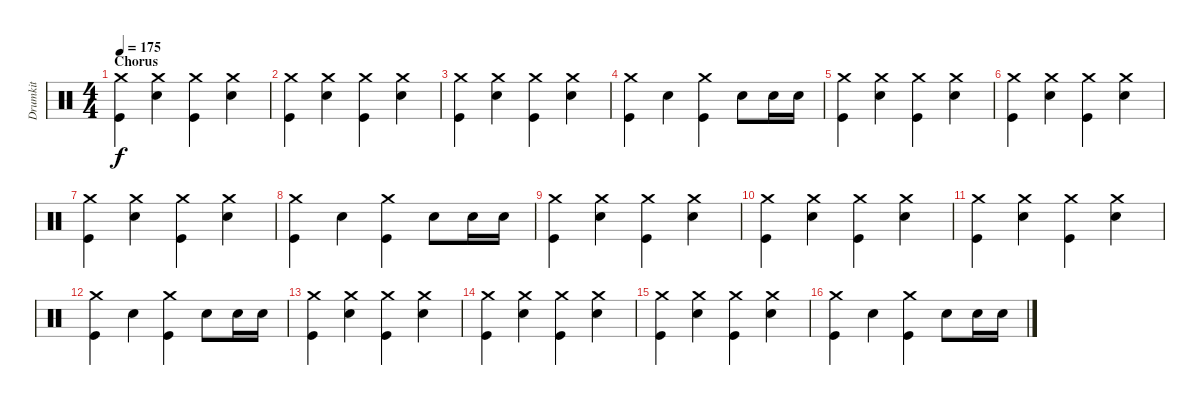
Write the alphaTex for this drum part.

\track ("Drumkit" "Drumkit") {instrument percussion}
\staff {score}
\articulation defaults
\ts (4 4)
\section ("" "Chorus")
\tempo 175
\clef neutral
\ks c
("Kick (hit)" "Crash medium (hit)").4{dy f} ("Snare (hit) 2" "Crash medium (hit)").4 ("Kick (hit)" "Crash medium (hit)").4 ("Snare (hit) 2" "Crash medium (hit)").4 |
("Kick (hit)" "Crash medium (hit)").4 ("Snare (hit) 2" "Crash medium (hit)").4 ("Kick (hit)" "Crash medium (hit)").4 ("Snare (hit) 2" "Crash medium (hit)").4 |
("Kick (hit)" "Crash medium (hit)").4 ("Snare (hit) 2" "Crash medium (hit)").4 ("Kick (hit)" "Crash medium (hit)").4 ("Snare (hit) 2" "Crash medium (hit)").4 |
("Kick (hit)" "Crash medium (hit)").4 "Snare (hit) 2".4 ("Kick (hit)" "Crash medium (hit)").4 "Snare (hit) 2".8 "Snare (hit) 2".16 "Snare (hit) 2".16 |
("Kick (hit)" "Crash medium (hit)").4 ("Snare (hit) 2" "Crash medium (hit)").4 ("Kick (hit)" "Crash medium (hit)").4 ("Snare (hit) 2" "Crash medium (hit)").4 |
("Kick (hit)" "Crash medium (hit)").4 ("Snare (hit) 2" "Crash medium (hit)").4 ("Kick (hit)" "Crash medium (hit)").4 ("Snare (hit) 2" "Crash medium (hit)").4 |
("Kick (hit)" "Crash medium (hit)").4 ("Snare (hit) 2" "Crash medium (hit)").4 ("Kick (hit)" "Crash medium (hit)").4 ("Snare (hit) 2" "Crash medium (hit)").4 |
("Kick (hit)" "Crash medium (hit)").4 "Snare (hit) 2".4 ("Kick (hit)" "Crash medium (hit)").4 "Snare (hit) 2".8 "Snare (hit) 2".16 "Snare (hit) 2".16 |
("Kick (hit)" "Crash medium (hit)").4 ("Snare (hit) 2" "Crash medium (hit)").4 ("Kick (hit)" "Crash medium (hit)").4 ("Snare (hit) 2" "Crash medium (hit)").4 |
("Kick (hit)" "Crash medium (hit)").4 ("Snare (hit) 2" "Crash medium (hit)").4 ("Kick (hit)" "Crash medium (hit)").4 ("Snare (hit) 2" "Crash medium (hit)").4 |
("Kick (hit)" "Crash medium (hit)").4 ("Snare (hit) 2" "Crash medium (hit)").4 ("Kick (hit)" "Crash medium (hit)").4 ("Snare (hit) 2" "Crash medium (hit)").4 |
("Kick (hit)" "Crash medium (hit)").4 "Snare (hit) 2".4 ("Kick (hit)" "Crash medium (hit)").4 "Snare (hit) 2".8 "Snare (hit) 2".16 "Snare (hit) 2".16 |
("Kick (hit)" "Crash medium (hit)").4 ("Snare (hit) 2" "Crash medium (hit)").4 ("Kick (hit)" "Crash medium (hit)").4 ("Snare (hit) 2" "Crash medium (hit)").4 |
("Kick (hit)" "Crash medium (hit)").4 ("Snare (hit) 2" "Crash medium (hit)").4 ("Kick (hit)" "Crash medium (hit)").4 ("Snare (hit) 2" "Crash medium (hit)").4 |
("Kick (hit)" "Crash medium (hit)").4 ("Snare (hit) 2" "Crash medium (hit)").4 ("Kick (hit)" "Crash medium (hit)").4 ("Snare (hit) 2" "Crash medium (hit)").4 |
("Kick (hit)" "Crash medium (hit)").4 "Snare (hit) 2".4 ("Kick (hit)" "Crash medium (hit)").4 "Snare (hit) 2".8 "Snare (hit) 2".16 "Snare (hit) 2".16
